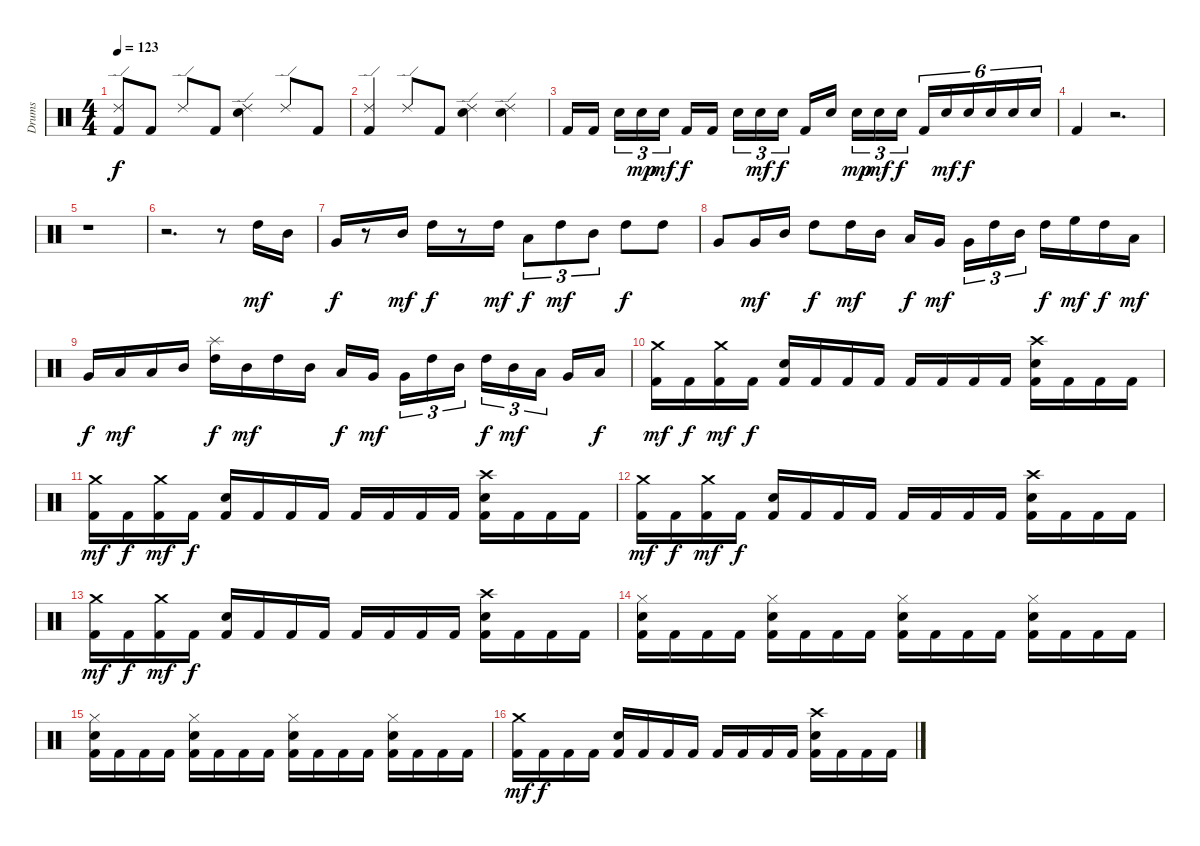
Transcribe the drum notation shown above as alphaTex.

\track ("Drums" "Drums") {instrument percussion}
\staff {score}
\articulation defaults
\ts (4 4)
\tempo 123
\clef neutral
\ks c
("Kick (hit) 2" "Ride (edge) 2").8{dy f} "Kick (hit) 2".8 "Ride (edge) 2".8 "Kick (hit) 2".8 ("Snare (hit) 2" "Ride (edge) 2").4 "Ride (edge) 2".8 "Kick (hit) 2".8 |
("Kick (hit) 2" "Ride (edge) 2").4 "Ride (edge) 2".8 "Kick (hit) 2".8 ("Snare (hit) 2" "Ride (edge) 2").4 ("Snare (hit) 2" "Ride (edge) 2").4 |
"Kick (hit) 2".16 "Kick (hit) 2".16 "Snare (hit) 2".16{tu (3 2)} "Snare (hit) 2".16{tu (3 2) dy mp} "Snare (hit) 2".16{tu (3 2) dy mf} "Kick (hit) 2".16{dy f} "Kick (hit) 2".16 "Snare (hit) 2".16{tu (3 2)} "Snare (hit) 2".16{tu (3 2) dy mf} "Snare (hit) 2".16{tu (3 2) dy f} "Kick (hit) 2".16 "Snare (hit) 2".16 "Snare (hit) 2".16{tu (3 2) dy mp} "Snare (hit) 2".16{tu (3 2) dy mf} "Snare (hit) 2".16{tu (3 2) dy f} "Kick (hit) 2".16{tu (6 4)} "Snare (hit) 2".16{tu (6 4) dy mf} "Snare (hit) 2".16{tu (6 4) dy f} "Snare (hit) 2".16{tu (6 4)} "Snare (hit) 2".16{tu (6 4)} "Snare (hit) 2".16{tu (6 4)} |
"Kick (hit) 2".4 r.2{d} |
r.1 |
r.2{d} r.8 "High Tom (hit)".16{dy mf} "Mid Tom (hit)".16 |
"Very Low Tom (hit)".16{dy f} r.8 "Mid Tom (hit)".16{dy mf} "High Tom (hit)".16{dy f} r.8 "High Tom (hit)".16{dy mf} "Low Tom (hit)".8{tu (3 2) dy f} "High Tom (hit)".8{tu (3 2) dy mf} "Mid Tom (hit)".8{tu (3 2)} "High Tom (hit)".8{dy f} "High Tom (hit)".8 |
"Very Low Tom (hit)".8 "Very Low Tom (hit)".16{dy mf} "Mid Tom (hit)".16 "High Tom (hit)".8{dy f} "High Tom (hit)".16{dy mf} "Mid Tom (hit)".16 "Low Tom (hit)".16{dy f} "Very Low Tom (hit)".16{dy mf} "Very Low Tom (hit)".16{tu (3 2)} "High Tom (hit)".16{tu (3 2)} "Mid Tom (hit)".16{tu (3 2)} "High Tom (hit)".16{dy f} "High Floor Tom (hit)".16{dy mf} "High Tom (hit)".16{dy f} "Low Tom (hit)".16{dy mf} |
"Very Low Tom (hit)".16{dy f} "Low Floor Tom (hit)".16{dy mf} "Low Tom (hit)".16 "Mid Tom (hit)".16 ("High Tom (hit)" "Splash (hit)").16{dy f} "Mid Tom (hit)".16{dy mf} "High Tom (hit)".16 "Mid Tom (hit)".16 "Low Tom (hit)".16{dy f} "Very Low Tom (hit)".16{dy mf} "Very Low Tom (hit)".16{tu (3 2)} "High Tom (hit)".16{tu (3 2)} "Mid Tom (hit)".16{tu (3 2)} "High Tom (hit)".16{tu (3 2) dy f} "Mid Tom (hit)".16{tu (3 2) dy mf} "Low Tom (hit)".16{tu (3 2)} "Very Low Tom (hit)".16 "Low Floor Tom (hit)".16{dy f} |
("Kick (hit) 2" "Crash medium (hit)").16{dy mf} "Kick (hit) 2".16{dy f} ("Kick (hit) 2" "Crash medium (hit)").16{dy mf} "Kick (hit) 2".16{dy f} ("Kick (hit) 2" "Snare (hit) 2").16 "Kick (hit) 2".16 "Kick (hit) 2".16 "Kick (hit) 2".16 "Kick (hit) 2".16 "Kick (hit) 2".16 "Kick (hit) 2".16 "Kick (hit) 2".16 ("Kick (hit) 2" "Snare (hit) 2" "Crash high (hit)").16 "Kick (hit) 2".16 "Kick (hit) 2".16 "Kick (hit) 2".16 |
("Kick (hit) 2" "Crash medium (hit)").16{dy mf} "Kick (hit) 2".16{dy f} ("Kick (hit) 2" "Crash medium (hit)").16{dy mf} "Kick (hit) 2".16{dy f} ("Kick (hit) 2" "Snare (hit) 2").16 "Kick (hit) 2".16 "Kick (hit) 2".16 "Kick (hit) 2".16 "Kick (hit) 2".16 "Kick (hit) 2".16 "Kick (hit) 2".16 "Kick (hit) 2".16 ("Kick (hit) 2" "Snare (hit) 2" "Crash high (hit)").16 "Kick (hit) 2".16 "Kick (hit) 2".16 "Kick (hit) 2".16 |
("Kick (hit) 2" "Crash medium (hit)").16{dy mf} "Kick (hit) 2".16{dy f} ("Kick (hit) 2" "Crash medium (hit)").16{dy mf} "Kick (hit) 2".16{dy f} ("Kick (hit) 2" "Snare (hit) 2").16 "Kick (hit) 2".16 "Kick (hit) 2".16 "Kick (hit) 2".16 "Kick (hit) 2".16 "Kick (hit) 2".16 "Kick (hit) 2".16 "Kick (hit) 2".16 ("Kick (hit) 2" "Snare (hit) 2" "Crash high (hit)").16 "Kick (hit) 2".16 "Kick (hit) 2".16 "Kick (hit) 2".16 |
("Kick (hit) 2" "Crash medium (hit)").16{dy mf} "Kick (hit) 2".16{dy f} ("Kick (hit) 2" "Crash medium (hit)").16{dy mf} "Kick (hit) 2".16{dy f} ("Kick (hit) 2" "Snare (hit) 2").16 "Kick (hit) 2".16 "Kick (hit) 2".16 "Kick (hit) 2".16 "Kick (hit) 2".16 "Kick (hit) 2".16 "Kick (hit) 2".16 "Kick (hit) 2".16 ("Kick (hit) 2" "Snare (hit) 2" "Crash high (hit)").16 "Kick (hit) 2".16 "Kick (hit) 2".16 "Kick (hit) 2".16 |
("Kick (hit) 2" "Snare (hit) 2" "Hi-Hat (closed)").16 "Kick (hit) 2".16 "Kick (hit) 2".16 "Kick (hit) 2".16 ("Kick (hit) 2" "Snare (hit) 2" "Hi-Hat (closed)").16 "Kick (hit) 2".16 "Kick (hit) 2".16 "Kick (hit) 2".16 ("Kick (hit) 2" "Snare (hit) 2" "Hi-Hat (closed)").16 "Kick (hit) 2".16 "Kick (hit) 2".16 "Kick (hit) 2".16 ("Kick (hit) 2" "Snare (hit) 2" "Hi-Hat (closed)").16 "Kick (hit) 2".16 "Kick (hit) 2".16 "Kick (hit) 2".16 |
("Kick (hit) 2" "Snare (hit) 2" "Hi-Hat (closed)").16 "Kick (hit) 2".16 "Kick (hit) 2".16 "Kick (hit) 2".16 ("Kick (hit) 2" "Snare (hit) 2" "Hi-Hat (closed)").16 "Kick (hit) 2".16 "Kick (hit) 2".16 "Kick (hit) 2".16 ("Kick (hit) 2" "Snare (hit) 2" "Hi-Hat (closed)").16 "Kick (hit) 2".16 "Kick (hit) 2".16 "Kick (hit) 2".16 ("Kick (hit) 2" "Snare (hit) 2" "Hi-Hat (closed)").16 "Kick (hit) 2".16 "Kick (hit) 2".16 "Kick (hit) 2".16 |
("Kick (hit) 2" "Crash medium (hit)").16{dy mf} "Kick (hit) 2".16{dy f} "Kick (hit) 2".16 "Kick (hit) 2".16 ("Kick (hit) 2" "Snare (hit) 2").16 "Kick (hit) 2".16 "Kick (hit) 2".16 "Kick (hit) 2".16 "Kick (hit) 2".16 "Kick (hit) 2".16 "Kick (hit) 2".16 "Kick (hit) 2".16 ("Kick (hit) 2" "Snare (hit) 2" "Crash high (hit)").16 "Kick (hit) 2".16 "Kick (hit) 2".16 "Kick (hit) 2".16
